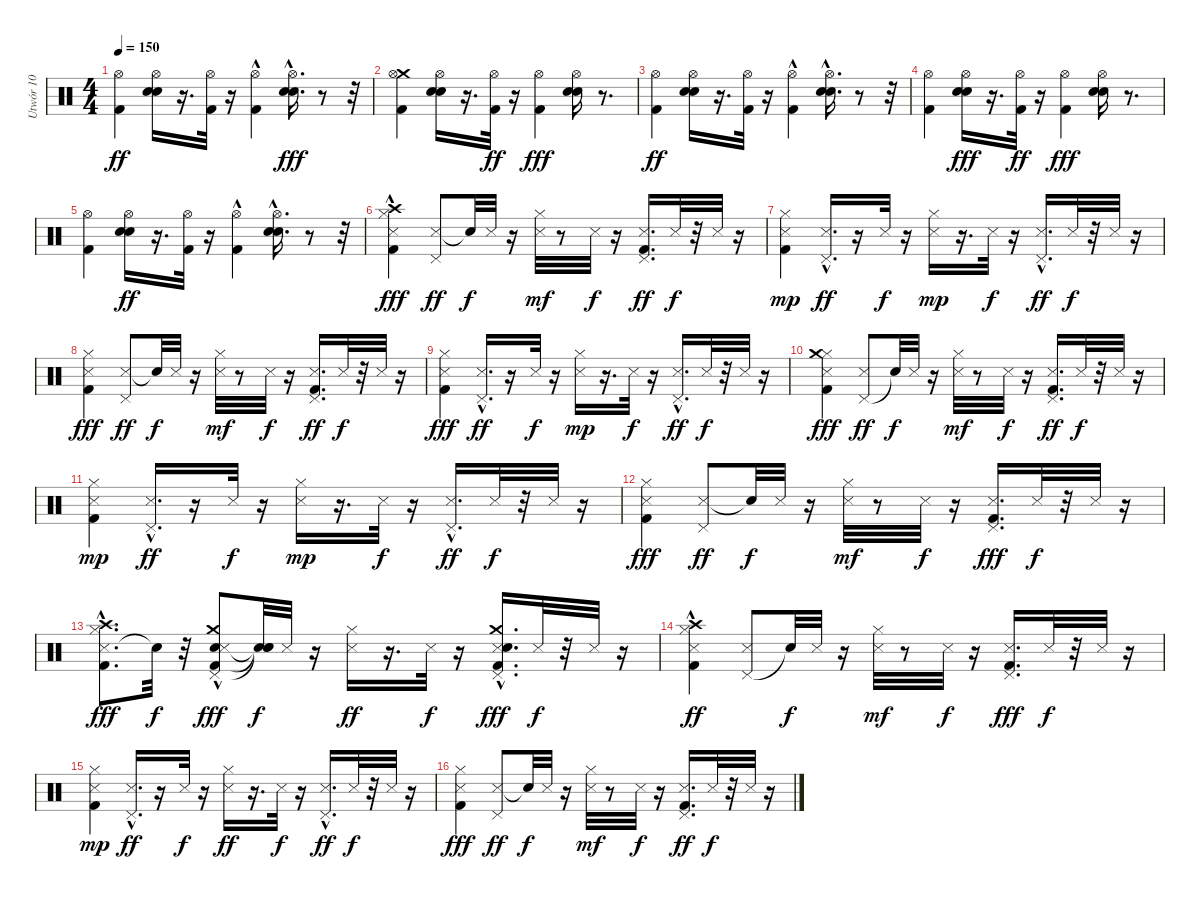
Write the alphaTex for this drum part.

\track ("Utwór 10" "Utwór 10") {instrument percussion}
\staff {score}
\articulation defaults
\ts (4 4)
\tempo 150
\clef neutral
\ks c
("Kick (hit) 2" "Hi-Hat (open)").4{dy ff} ("Hand Clap (hit)" "Hi-Hat (open)" "Snare (hit) 2").16 r.16{d} ("Kick (hit) 2" "Hi-Hat (open)").32 r.16 ("Kick (hit) 2"{hac} "Hi-Hat (open)").4 ("Snare (hit) 2" "Hi-Hat (open)" "Hand Clap (hit)"{hac}).16{d dy fff} r.8 r.32 |
("Crash medium (hit)" "Hi-Hat (open)" "Kick (hit) 2").4 ("Hand Clap (hit)" "Hi-Hat (open)" "Snare (hit) 2").16 r.16{d} ("Hi-Hat (open)" "Kick (hit) 2").32{dy ff} r.16 ("Hi-Hat (open)" "Kick (hit) 2").4{dy fff} ("Hi-Hat (open)" "Snare (hit) 2" "Hand Clap (hit)").16 r.8{d} |
("Kick (hit) 2" "Hi-Hat (open)").4{dy ff} ("Snare (hit) 2" "Hand Clap (hit)" "Hi-Hat (open)").16 r.16{d} ("Kick (hit) 2" "Hi-Hat (open)").32 r.16 ("Kick (hit) 2"{hac} "Hi-Hat (open)").4 ("Hand Clap (hit)"{hac} "Hi-Hat (open)" "Snare (hit) 2").16{d} r.8 r.32 |
("Kick (hit) 2" "Hi-Hat (open)").4 ("Hand Clap (hit)" "Hi-Hat (open)" "Snare (hit) 2").16{dy fff} r.16{d} ("Hi-Hat (open)" "Kick (hit) 2").32{dy ff} r.16 ("Kick (hit) 2" "Hi-Hat (open)").4{dy fff} ("Hi-Hat (open)" "Hand Clap (hit)" "Snare (hit) 2").16 r.8{d} |
("Hi-Hat (open)" "Kick (hit) 2").4 ("Hand Clap (hit)" "Snare (hit) 2" "Hi-Hat (open)").16{dy ff} r.16{d} ("Hi-Hat (open)" "Kick (hit) 2").32 r.16 ("Hi-Hat (open)" "Kick (hit) 2"{hac}).4 ("Snare (hit) 2" "Hand Clap (hit)"{hac} "Hi-Hat (open)").16{d} r.8 r.32 |
("Crash high (hit)"{hac} "Snare (side stick) 3" "Kick (hit) 2" "Hi-Hat (closed)").4{dy fff} ("Snare (side stick) 3" "Pedal Hi-Hat (hit)").8{dy ff} "Snare (hit)"{t}.32{dy f} "Snare (side stick) 3".32 r.16 ("Hi-Hat (closed)" "Snare (side stick) 3").32{dy mf} r.8 "Snare (side stick) 3".32{dy f} r.16 ("Snare (side stick) 3" "Kick (hit) 2" "Pedal Hi-Hat (hit)").16{d dy ff} "Snare (side stick) 3".32{dy f} r.32 "Snare (side stick) 3".32 r.16 |
("Snare (side stick) 3" "Kick (hit) 2" "Hi-Hat (closed)").4{dy mp} ("Snare (side stick) 3" "Pedal Hi-Hat (hit)"{hac}).16{d dy ff} r.16 "Snare (side stick) 3".32{dy f} r.16 ("Snare (side stick) 3" "Hi-Hat (closed)").16{dy mp} r.16{d} "Snare (side stick) 3".32{dy f} r.16 ("Pedal Hi-Hat (hit)"{hac} "Snare (side stick) 3").16{d dy ff} "Snare (side stick) 3".32{dy f} r.32 "Snare (side stick) 3".32 r.16 |
("Kick (hit) 2" "Hi-Hat (closed)" "Snare (side stick) 3").4{dy fff} ("Snare (side stick) 3" "Pedal Hi-Hat (hit)").8{dy ff} "Snare (hit)"{t}.32{dy f} "Snare (side stick) 3".32 r.16 ("Snare (side stick) 3" "Hi-Hat (closed)").32{dy mf} r.8 "Snare (side stick) 3".32{dy f} r.16 ("Kick (hit) 2" "Pedal Hi-Hat (hit)" "Snare (side stick) 3").16{d dy ff} "Snare (side stick) 3".32{dy f} r.32 "Snare (side stick) 3".32 r.16 |
("Snare (side stick) 3" "Hi-Hat (closed)" "Kick (hit) 2").4{dy fff} ("Snare (side stick) 3" "Pedal Hi-Hat (hit)"{hac}).16{d dy ff} r.16 "Snare (side stick) 3".32{dy f} r.16 ("Snare (side stick) 3" "Hi-Hat (closed)").16{dy mp} r.16{d} "Snare (side stick) 3".32{dy f} r.16 ("Pedal Hi-Hat (hit)"{hac} "Snare (side stick) 3").16{d dy ff} "Snare (side stick) 3".32{dy f} r.32 "Snare (side stick) 3".32 r.16 |
("Kick (hit) 2" "Hi-Hat (closed)" "Crash medium (hit)" "Snare (side stick) 3").4{dy fff} ("Pedal Hi-Hat (hit)" "Snare (side stick) 3").8{dy ff} "Snare (hit)"{t}.32{dy f} "Snare (side stick) 3".32 r.16 ("Snare (side stick) 3" "Hi-Hat (closed)").32{dy mf} r.8 "Snare (side stick) 3".32{dy f} r.16 ("Snare (side stick) 3" "Kick (hit) 2" "Pedal Hi-Hat (hit)").16{d dy ff} "Snare (side stick) 3".32{dy f} r.32 "Snare (side stick) 3".32 r.16 |
("Snare (side stick) 3" "Kick (hit) 2" "Hi-Hat (closed)").4{dy mp} ("Snare (side stick) 3" "Pedal Hi-Hat (hit)"{hac}).16{d dy ff} r.16 "Snare (side stick) 3".32{dy f} r.16 ("Snare (side stick) 3" "Hi-Hat (closed)").16{dy mp} r.16{d} "Snare (side stick) 3".32{dy f} r.16 ("Snare (side stick) 3" "Pedal Hi-Hat (hit)"{hac}).16{d dy ff} "Snare (side stick) 3".32{dy f} r.32 "Snare (side stick) 3".32 r.16 |
("Kick (hit) 2" "Snare (side stick) 3" "Hi-Hat (closed)").4{dy fff} ("Snare (side stick) 3" "Pedal Hi-Hat (hit)").8{dy ff} "Snare (hit)"{t}.32{dy f} "Snare (side stick) 3".32 r.16 ("Hi-Hat (closed)" "Snare (side stick) 3").32{dy mf} r.8 "Snare (side stick) 3".32{dy f} r.16 ("Pedal Hi-Hat (hit)" "Kick (hit) 2" "Snare (side stick) 3").16{d dy fff} "Snare (side stick) 3".32{dy f} r.32 "Snare (side stick) 3".32 r.16 |
("Snare (side stick) 3" "Crash high (hit)"{hac} "Hi-Hat (closed)" "Kick (hit) 2"{hac}).8{d dy fff} "Snare (hit)"{t}.32{dy f} r.32 ("Kick (hit) 2" "Pedal Hi-Hat (hit)"{hac} "Snare (hit) 2" "Snare (side stick) 3" "Crash medium (hit)").8{dy fff} ("Snare (hit)"{t} "Snare (hit)"{t} "Snare (hit)"{t}).32{dy f} "Snare (side stick) 3".32 r.16 ("Hi-Hat (closed)" "Snare (side stick) 3").16{dy ff} r.16{d} "Snare (side stick) 3".32{dy f} r.16 ("Kick (hit) 2"{hac} "Snare (side stick) 3" "Pedal Hi-Hat (hit)"{hac} "Snare (hit) 2"{hac} "Crash medium (hit)").16{d dy fff} "Snare (side stick) 3".32{dy f} r.32 "Snare (side stick) 3".32 r.16 |
("Hi-Hat (closed)" "Snare (side stick) 3" "Kick (hit) 2" "Crash high (hit)"{hac}).4{dy ff} ("Pedal Hi-Hat (hit)" "Snare (side stick) 3").8 "Snare (hit)"{t}.32{dy f} "Snare (side stick) 3".32 r.16 ("Hi-Hat (closed)" "Snare (side stick) 3").32{dy mf} r.8 "Snare (side stick) 3".32{dy f} r.16 ("Pedal Hi-Hat (hit)" "Kick (hit) 2" "Snare (side stick) 3").16{d dy fff} "Snare (side stick) 3".32{dy f} r.32 "Snare (side stick) 3".32 r.16 |
("Kick (hit) 2" "Hi-Hat (closed)" "Snare (side stick) 3").4{dy mp} ("Pedal Hi-Hat (hit)"{hac} "Snare (side stick) 3").16{d dy ff} r.16 "Snare (side stick) 3".32{dy f} r.16 ("Hi-Hat (closed)" "Snare (side stick) 3").16{dy ff} r.16{d} "Snare (side stick) 3".32{dy f} r.16 ("Snare (side stick) 3" "Pedal Hi-Hat (hit)"{hac}).16{d dy ff} "Snare (side stick) 3".32{dy f} r.32 "Snare (side stick) 3".32 r.16 |
("Snare (side stick) 3" "Hi-Hat (closed)" "Kick (hit) 2").4{dy fff} ("Snare (side stick) 3" "Pedal Hi-Hat (hit)").8{dy ff} "Snare (hit)"{t}.32{dy f} "Snare (side stick) 3".32 r.16 ("Snare (side stick) 3" "Hi-Hat (closed)").32{dy mf} r.8 "Snare (side stick) 3".32{dy f} r.16 ("Kick (hit) 2" "Snare (side stick) 3" "Pedal Hi-Hat (hit)").16{d dy ff} "Snare (side stick) 3".32{dy f} r.32 "Snare (side stick) 3".32 r.16
